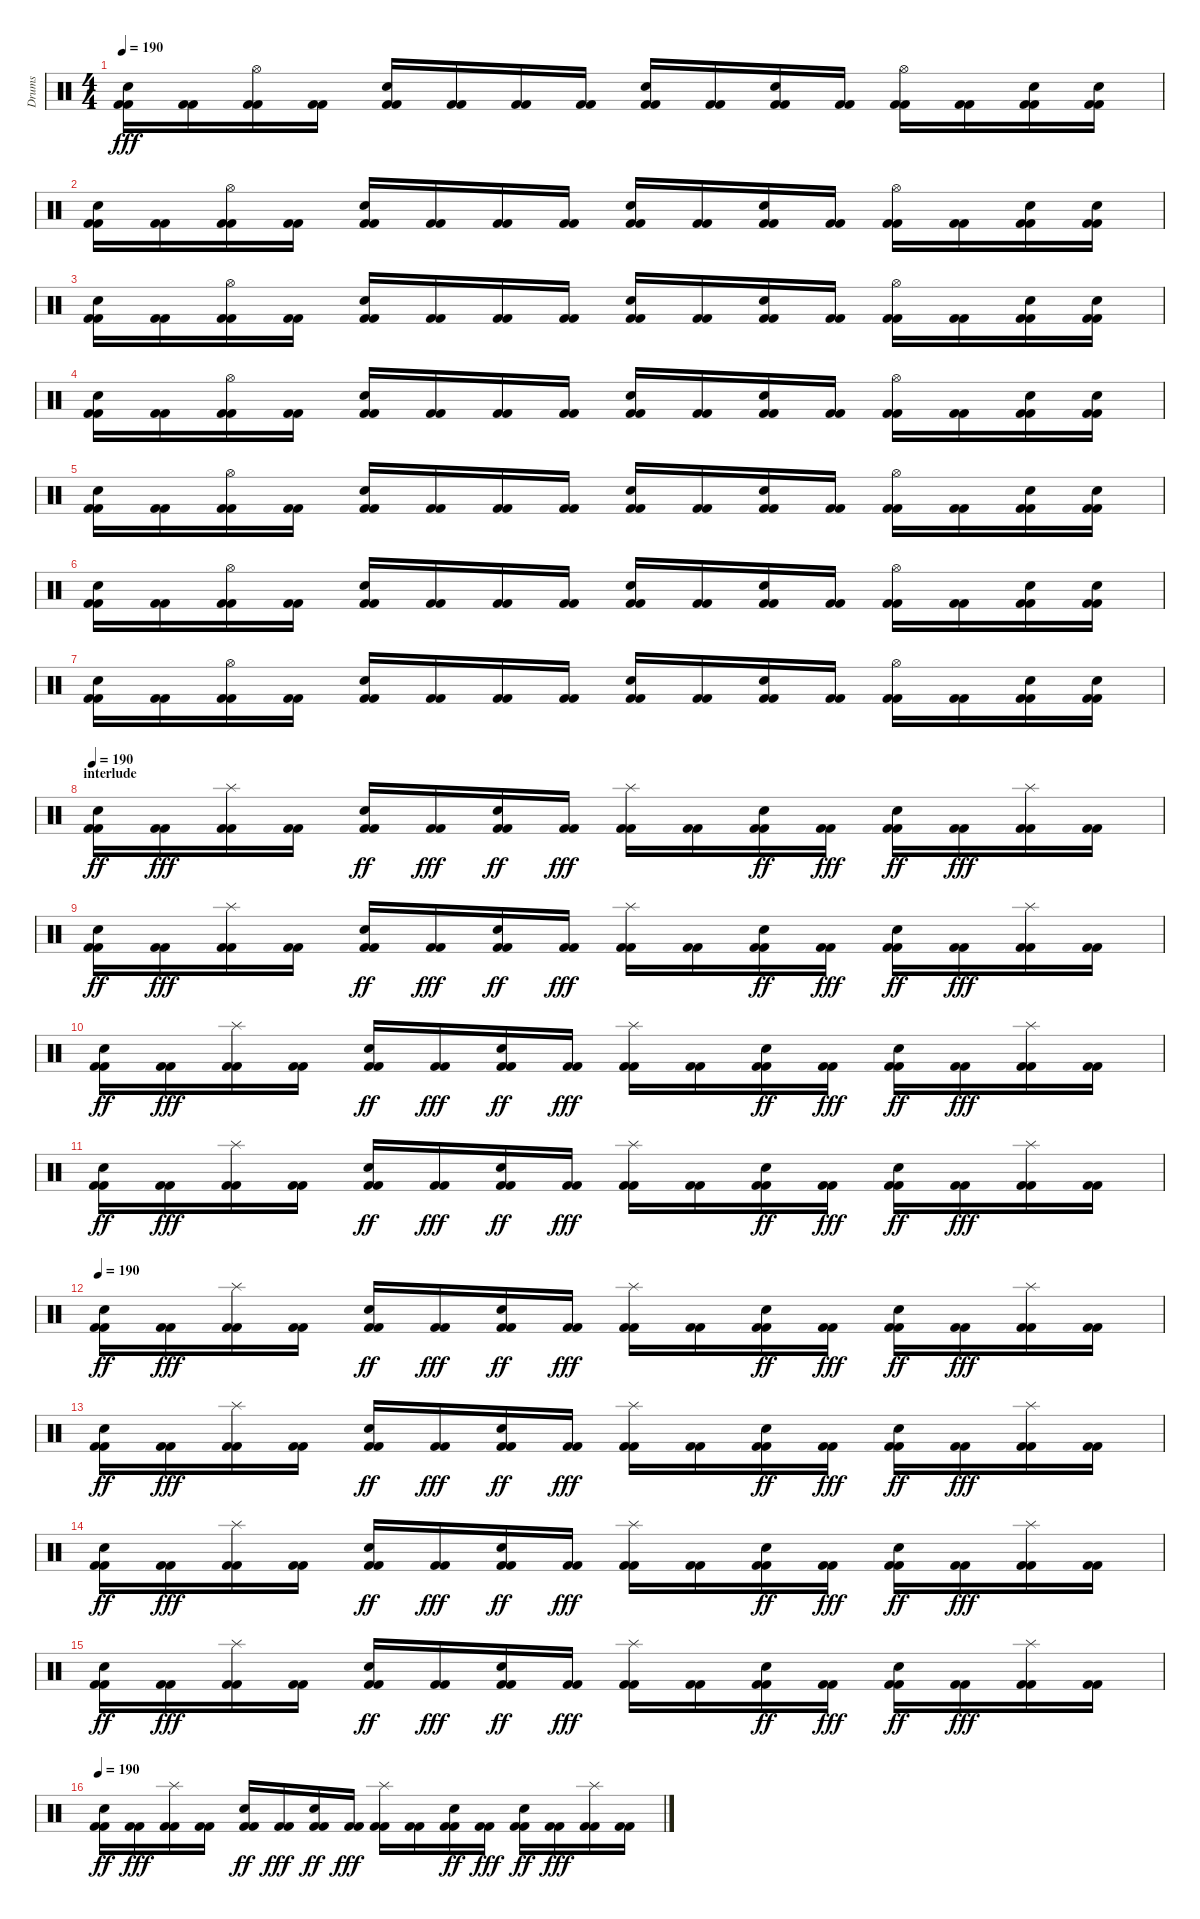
\track ("Drums" "Drums") {instrument percussion}
\staff {score}
\articulation defaults
\ts (4 4)
\tempo 190
\clef neutral
\ks c
("Electric Snare (hit)" "Kick (hit) 2" "Kick (hit) 2").16{dy fff} ("Kick (hit) 2" "Kick (hit) 2").16 ("Hi-Hat (open)" "Kick (hit) 2" "Kick (hit) 2").16 ("Kick (hit) 2" "Kick (hit) 2").16 ("Electric Snare (hit)" "Kick (hit) 2" "Kick (hit) 2").16 ("Kick (hit) 2" "Kick (hit) 2").16 ("Kick (hit) 2" "Kick (hit) 2").16 ("Kick (hit) 2" "Kick (hit) 2").16 ("Electric Snare (hit)" "Kick (hit) 2" "Kick (hit) 2").16 ("Kick (hit) 2" "Kick (hit) 2").16 ("Electric Snare (hit)" "Kick (hit) 2" "Kick (hit) 2").16 ("Kick (hit) 2" "Kick (hit) 2").16 ("Hi-Hat (open)" "Kick (hit) 2" "Kick (hit) 2").16 ("Kick (hit) 2" "Kick (hit) 2").16 ("Electric Snare (hit)" "Kick (hit) 2" "Kick (hit) 2").16 ("Electric Snare (hit)" "Kick (hit) 2" "Kick (hit) 2").16 |
("Electric Snare (hit)" "Kick (hit) 2" "Kick (hit) 2").16 ("Kick (hit) 2" "Kick (hit) 2").16 ("Hi-Hat (open)" "Kick (hit) 2" "Kick (hit) 2").16 ("Kick (hit) 2" "Kick (hit) 2").16 ("Electric Snare (hit)" "Kick (hit) 2" "Kick (hit) 2").16 ("Kick (hit) 2" "Kick (hit) 2").16 ("Kick (hit) 2" "Kick (hit) 2").16 ("Kick (hit) 2" "Kick (hit) 2").16 ("Electric Snare (hit)" "Kick (hit) 2" "Kick (hit) 2").16 ("Kick (hit) 2" "Kick (hit) 2").16 ("Electric Snare (hit)" "Kick (hit) 2" "Kick (hit) 2").16 ("Kick (hit) 2" "Kick (hit) 2").16 ("Hi-Hat (open)" "Kick (hit) 2" "Kick (hit) 2").16 ("Kick (hit) 2" "Kick (hit) 2").16 ("Electric Snare (hit)" "Kick (hit) 2" "Kick (hit) 2").16 ("Electric Snare (hit)" "Kick (hit) 2" "Kick (hit) 2").16 |
("Electric Snare (hit)" "Kick (hit) 2" "Kick (hit) 2").16 ("Kick (hit) 2" "Kick (hit) 2").16 ("Hi-Hat (open)" "Kick (hit) 2" "Kick (hit) 2").16 ("Kick (hit) 2" "Kick (hit) 2").16 ("Electric Snare (hit)" "Kick (hit) 2" "Kick (hit) 2").16 ("Kick (hit) 2" "Kick (hit) 2").16 ("Kick (hit) 2" "Kick (hit) 2").16 ("Kick (hit) 2" "Kick (hit) 2").16 ("Electric Snare (hit)" "Kick (hit) 2" "Kick (hit) 2").16 ("Kick (hit) 2" "Kick (hit) 2").16 ("Electric Snare (hit)" "Kick (hit) 2" "Kick (hit) 2").16 ("Kick (hit) 2" "Kick (hit) 2").16 ("Hi-Hat (open)" "Kick (hit) 2" "Kick (hit) 2").16 ("Kick (hit) 2" "Kick (hit) 2").16 ("Electric Snare (hit)" "Kick (hit) 2" "Kick (hit) 2").16 ("Electric Snare (hit)" "Kick (hit) 2" "Kick (hit) 2").16 |
("Electric Snare (hit)" "Kick (hit) 2" "Kick (hit) 2").16 ("Kick (hit) 2" "Kick (hit) 2").16 ("Hi-Hat (open)" "Kick (hit) 2" "Kick (hit) 2").16 ("Kick (hit) 2" "Kick (hit) 2").16 ("Electric Snare (hit)" "Kick (hit) 2" "Kick (hit) 2").16 ("Kick (hit) 2" "Kick (hit) 2").16 ("Kick (hit) 2" "Kick (hit) 2").16 ("Kick (hit) 2" "Kick (hit) 2").16 ("Electric Snare (hit)" "Kick (hit) 2" "Kick (hit) 2").16 ("Kick (hit) 2" "Kick (hit) 2").16 ("Electric Snare (hit)" "Kick (hit) 2" "Kick (hit) 2").16 ("Kick (hit) 2" "Kick (hit) 2").16 ("Hi-Hat (open)" "Kick (hit) 2" "Kick (hit) 2").16 ("Kick (hit) 2" "Kick (hit) 2").16 ("Electric Snare (hit)" "Kick (hit) 2" "Kick (hit) 2").16 ("Electric Snare (hit)" "Kick (hit) 2" "Kick (hit) 2").16 |
("Electric Snare (hit)" "Kick (hit) 2" "Kick (hit) 2").16 ("Kick (hit) 2" "Kick (hit) 2").16 ("Hi-Hat (open)" "Kick (hit) 2" "Kick (hit) 2").16 ("Kick (hit) 2" "Kick (hit) 2").16 ("Electric Snare (hit)" "Kick (hit) 2" "Kick (hit) 2").16 ("Kick (hit) 2" "Kick (hit) 2").16 ("Kick (hit) 2" "Kick (hit) 2").16 ("Kick (hit) 2" "Kick (hit) 2").16 ("Electric Snare (hit)" "Kick (hit) 2" "Kick (hit) 2").16 ("Kick (hit) 2" "Kick (hit) 2").16 ("Electric Snare (hit)" "Kick (hit) 2" "Kick (hit) 2").16 ("Kick (hit) 2" "Kick (hit) 2").16 ("Hi-Hat (open)" "Kick (hit) 2" "Kick (hit) 2").16 ("Kick (hit) 2" "Kick (hit) 2").16 ("Electric Snare (hit)" "Kick (hit) 2" "Kick (hit) 2").16 ("Electric Snare (hit)" "Kick (hit) 2" "Kick (hit) 2").16 |
("Electric Snare (hit)" "Kick (hit) 2" "Kick (hit) 2").16 ("Kick (hit) 2" "Kick (hit) 2").16 ("Hi-Hat (open)" "Kick (hit) 2" "Kick (hit) 2").16 ("Kick (hit) 2" "Kick (hit) 2").16 ("Electric Snare (hit)" "Kick (hit) 2" "Kick (hit) 2").16 ("Kick (hit) 2" "Kick (hit) 2").16 ("Kick (hit) 2" "Kick (hit) 2").16 ("Kick (hit) 2" "Kick (hit) 2").16 ("Electric Snare (hit)" "Kick (hit) 2" "Kick (hit) 2").16 ("Kick (hit) 2" "Kick (hit) 2").16 ("Electric Snare (hit)" "Kick (hit) 2" "Kick (hit) 2").16 ("Kick (hit) 2" "Kick (hit) 2").16 ("Hi-Hat (open)" "Kick (hit) 2" "Kick (hit) 2").16 ("Kick (hit) 2" "Kick (hit) 2").16 ("Electric Snare (hit)" "Kick (hit) 2" "Kick (hit) 2").16 ("Electric Snare (hit)" "Kick (hit) 2" "Kick (hit) 2").16 |
("Electric Snare (hit)" "Kick (hit) 2" "Kick (hit) 2").16 ("Kick (hit) 2" "Kick (hit) 2").16 ("Hi-Hat (open)" "Kick (hit) 2" "Kick (hit) 2").16 ("Kick (hit) 2" "Kick (hit) 2").16 ("Electric Snare (hit)" "Kick (hit) 2" "Kick (hit) 2").16 ("Kick (hit) 2" "Kick (hit) 2").16 ("Kick (hit) 2" "Kick (hit) 2").16 ("Kick (hit) 2" "Kick (hit) 2").16 ("Electric Snare (hit)" "Kick (hit) 2" "Kick (hit) 2").16 ("Kick (hit) 2" "Kick (hit) 2").16 ("Electric Snare (hit)" "Kick (hit) 2" "Kick (hit) 2").16 ("Kick (hit) 2" "Kick (hit) 2").16 ("Hi-Hat (open)" "Kick (hit) 2" "Kick (hit) 2").16 ("Kick (hit) 2" "Kick (hit) 2").16 ("Electric Snare (hit)" "Kick (hit) 2" "Kick (hit) 2").16 ("Electric Snare (hit)" "Kick (hit) 2" "Kick (hit) 2").16 |
\section ("" "interlude")
\tempo 190
("Kick (hit) 2" "Kick (hit) 2" "Electric Snare (hit)").16{dy ff} ("Kick (hit) 2" "Kick (hit) 2").16{dy fff} ("Kick (hit) 2" "Kick (hit) 2" "Splash (hit)").16 ("Kick (hit) 2" "Kick (hit) 2").16 ("Kick (hit) 2" "Kick (hit) 2" "Electric Snare (hit)").16{dy ff} ("Kick (hit) 2" "Kick (hit) 2").16{dy fff} ("Kick (hit) 2" "Kick (hit) 2" "Electric Snare (hit)").16{dy ff} ("Kick (hit) 2" "Kick (hit) 2").16{dy fff} ("Kick (hit) 2" "Kick (hit) 2" "Splash (hit)").16 ("Kick (hit) 2" "Kick (hit) 2").16 ("Kick (hit) 2" "Kick (hit) 2" "Electric Snare (hit)").16{dy ff} ("Kick (hit) 2" "Kick (hit) 2").16{dy fff} ("Kick (hit) 2" "Kick (hit) 2" "Electric Snare (hit)").16{dy ff} ("Kick (hit) 2" "Kick (hit) 2").16{dy fff} ("Kick (hit) 2" "Kick (hit) 2" "Splash (hit)").16 ("Kick (hit) 2" "Kick (hit) 2").16 |
("Kick (hit) 2" "Kick (hit) 2" "Electric Snare (hit)").16{dy ff} ("Kick (hit) 2" "Kick (hit) 2").16{dy fff} ("Kick (hit) 2" "Kick (hit) 2" "Splash (hit)").16 ("Kick (hit) 2" "Kick (hit) 2").16 ("Kick (hit) 2" "Kick (hit) 2" "Electric Snare (hit)").16{dy ff} ("Kick (hit) 2" "Kick (hit) 2").16{dy fff} ("Kick (hit) 2" "Kick (hit) 2" "Electric Snare (hit)").16{dy ff} ("Kick (hit) 2" "Kick (hit) 2").16{dy fff} ("Kick (hit) 2" "Kick (hit) 2" "Splash (hit)").16 ("Kick (hit) 2" "Kick (hit) 2").16 ("Kick (hit) 2" "Kick (hit) 2" "Electric Snare (hit)").16{dy ff} ("Kick (hit) 2" "Kick (hit) 2").16{dy fff} ("Kick (hit) 2" "Kick (hit) 2" "Electric Snare (hit)").16{dy ff} ("Kick (hit) 2" "Kick (hit) 2").16{dy fff} ("Kick (hit) 2" "Kick (hit) 2" "Splash (hit)").16 ("Kick (hit) 2" "Kick (hit) 2").16 |
("Kick (hit) 2" "Kick (hit) 2" "Electric Snare (hit)").16{dy ff} ("Kick (hit) 2" "Kick (hit) 2").16{dy fff} ("Kick (hit) 2" "Kick (hit) 2" "Splash (hit)").16 ("Kick (hit) 2" "Kick (hit) 2").16 ("Kick (hit) 2" "Kick (hit) 2" "Electric Snare (hit)").16{dy ff} ("Kick (hit) 2" "Kick (hit) 2").16{dy fff} ("Kick (hit) 2" "Kick (hit) 2" "Electric Snare (hit)").16{dy ff} ("Kick (hit) 2" "Kick (hit) 2").16{dy fff} ("Kick (hit) 2" "Kick (hit) 2" "Splash (hit)").16 ("Kick (hit) 2" "Kick (hit) 2").16 ("Kick (hit) 2" "Kick (hit) 2" "Electric Snare (hit)").16{dy ff} ("Kick (hit) 2" "Kick (hit) 2").16{dy fff} ("Kick (hit) 2" "Kick (hit) 2" "Electric Snare (hit)").16{dy ff} ("Kick (hit) 2" "Kick (hit) 2").16{dy fff} ("Kick (hit) 2" "Kick (hit) 2" "Splash (hit)").16 ("Kick (hit) 2" "Kick (hit) 2").16 |
("Kick (hit) 2" "Kick (hit) 2" "Electric Snare (hit)").16{dy ff} ("Kick (hit) 2" "Kick (hit) 2").16{dy fff} ("Kick (hit) 2" "Kick (hit) 2" "Splash (hit)").16 ("Kick (hit) 2" "Kick (hit) 2").16 ("Kick (hit) 2" "Kick (hit) 2" "Electric Snare (hit)").16{dy ff} ("Kick (hit) 2" "Kick (hit) 2").16{dy fff} ("Kick (hit) 2" "Kick (hit) 2" "Electric Snare (hit)").16{dy ff} ("Kick (hit) 2" "Kick (hit) 2").16{dy fff} ("Kick (hit) 2" "Kick (hit) 2" "Splash (hit)").16 ("Kick (hit) 2" "Kick (hit) 2").16 ("Kick (hit) 2" "Kick (hit) 2" "Electric Snare (hit)").16{dy ff} ("Kick (hit) 2" "Kick (hit) 2").16{dy fff} ("Kick (hit) 2" "Kick (hit) 2" "Electric Snare (hit)").16{dy ff} ("Kick (hit) 2" "Kick (hit) 2").16{dy fff} ("Kick (hit) 2" "Kick (hit) 2" "Splash (hit)").16 ("Kick (hit) 2" "Kick (hit) 2").16 |
\tempo 190
("Kick (hit) 2" "Kick (hit) 2" "Electric Snare (hit)").16{dy ff} ("Kick (hit) 2" "Kick (hit) 2").16{dy fff} ("Kick (hit) 2" "Kick (hit) 2" "Splash (hit)").16 ("Kick (hit) 2" "Kick (hit) 2").16 ("Kick (hit) 2" "Kick (hit) 2" "Electric Snare (hit)").16{dy ff} ("Kick (hit) 2" "Kick (hit) 2").16{dy fff} ("Kick (hit) 2" "Kick (hit) 2" "Electric Snare (hit)").16{dy ff} ("Kick (hit) 2" "Kick (hit) 2").16{dy fff} ("Kick (hit) 2" "Kick (hit) 2" "Splash (hit)").16 ("Kick (hit) 2" "Kick (hit) 2").16 ("Kick (hit) 2" "Kick (hit) 2" "Electric Snare (hit)").16{dy ff} ("Kick (hit) 2" "Kick (hit) 2").16{dy fff} ("Kick (hit) 2" "Kick (hit) 2" "Electric Snare (hit)").16{dy ff} ("Kick (hit) 2" "Kick (hit) 2").16{dy fff} ("Kick (hit) 2" "Kick (hit) 2" "Splash (hit)").16 ("Kick (hit) 2" "Kick (hit) 2").16 |
("Kick (hit) 2" "Kick (hit) 2" "Electric Snare (hit)").16{dy ff} ("Kick (hit) 2" "Kick (hit) 2").16{dy fff} ("Kick (hit) 2" "Kick (hit) 2" "Splash (hit)").16 ("Kick (hit) 2" "Kick (hit) 2").16 ("Kick (hit) 2" "Kick (hit) 2" "Electric Snare (hit)").16{dy ff} ("Kick (hit) 2" "Kick (hit) 2").16{dy fff} ("Kick (hit) 2" "Kick (hit) 2" "Electric Snare (hit)").16{dy ff} ("Kick (hit) 2" "Kick (hit) 2").16{dy fff} ("Kick (hit) 2" "Kick (hit) 2" "Splash (hit)").16 ("Kick (hit) 2" "Kick (hit) 2").16 ("Kick (hit) 2" "Kick (hit) 2" "Electric Snare (hit)").16{dy ff} ("Kick (hit) 2" "Kick (hit) 2").16{dy fff} ("Kick (hit) 2" "Kick (hit) 2" "Electric Snare (hit)").16{dy ff} ("Kick (hit) 2" "Kick (hit) 2").16{dy fff} ("Kick (hit) 2" "Kick (hit) 2" "Splash (hit)").16 ("Kick (hit) 2" "Kick (hit) 2").16 |
("Kick (hit) 2" "Kick (hit) 2" "Electric Snare (hit)").16{dy ff} ("Kick (hit) 2" "Kick (hit) 2").16{dy fff} ("Kick (hit) 2" "Kick (hit) 2" "Splash (hit)").16 ("Kick (hit) 2" "Kick (hit) 2").16 ("Kick (hit) 2" "Kick (hit) 2" "Electric Snare (hit)").16{dy ff} ("Kick (hit) 2" "Kick (hit) 2").16{dy fff} ("Kick (hit) 2" "Kick (hit) 2" "Electric Snare (hit)").16{dy ff} ("Kick (hit) 2" "Kick (hit) 2").16{dy fff} ("Kick (hit) 2" "Kick (hit) 2" "Splash (hit)").16 ("Kick (hit) 2" "Kick (hit) 2").16 ("Kick (hit) 2" "Kick (hit) 2" "Electric Snare (hit)").16{dy ff} ("Kick (hit) 2" "Kick (hit) 2").16{dy fff} ("Kick (hit) 2" "Kick (hit) 2" "Electric Snare (hit)").16{dy ff} ("Kick (hit) 2" "Kick (hit) 2").16{dy fff} ("Kick (hit) 2" "Kick (hit) 2" "Splash (hit)").16 ("Kick (hit) 2" "Kick (hit) 2").16 |
("Kick (hit) 2" "Kick (hit) 2" "Electric Snare (hit)").16{dy ff} ("Kick (hit) 2" "Kick (hit) 2").16{dy fff} ("Kick (hit) 2" "Kick (hit) 2" "Splash (hit)").16 ("Kick (hit) 2" "Kick (hit) 2").16 ("Kick (hit) 2" "Kick (hit) 2" "Electric Snare (hit)").16{dy ff} ("Kick (hit) 2" "Kick (hit) 2").16{dy fff} ("Kick (hit) 2" "Kick (hit) 2" "Electric Snare (hit)").16{dy ff} ("Kick (hit) 2" "Kick (hit) 2").16{dy fff} ("Kick (hit) 2" "Kick (hit) 2" "Splash (hit)").16 ("Kick (hit) 2" "Kick (hit) 2").16 ("Kick (hit) 2" "Kick (hit) 2" "Electric Snare (hit)").16{dy ff} ("Kick (hit) 2" "Kick (hit) 2").16{dy fff} ("Kick (hit) 2" "Kick (hit) 2" "Electric Snare (hit)").16{dy ff} ("Kick (hit) 2" "Kick (hit) 2").16{dy fff} ("Kick (hit) 2" "Kick (hit) 2" "Splash (hit)").16 ("Kick (hit) 2" "Kick (hit) 2").16 |
\tempo 190
("Kick (hit) 2" "Kick (hit) 2" "Electric Snare (hit)").16{dy ff} ("Kick (hit) 2" "Kick (hit) 2").16{dy fff} ("Kick (hit) 2" "Kick (hit) 2" "Splash (hit)").16 ("Kick (hit) 2" "Kick (hit) 2").16 ("Kick (hit) 2" "Kick (hit) 2" "Electric Snare (hit)").16{dy ff} ("Kick (hit) 2" "Kick (hit) 2").16{dy fff} ("Kick (hit) 2" "Kick (hit) 2" "Electric Snare (hit)").16{dy ff} ("Kick (hit) 2" "Kick (hit) 2").16{dy fff} ("Kick (hit) 2" "Kick (hit) 2" "Splash (hit)").16 ("Kick (hit) 2" "Kick (hit) 2").16 ("Kick (hit) 2" "Kick (hit) 2" "Electric Snare (hit)").16{dy ff} ("Kick (hit) 2" "Kick (hit) 2").16{dy fff} ("Kick (hit) 2" "Kick (hit) 2" "Electric Snare (hit)").16{dy ff} ("Kick (hit) 2" "Kick (hit) 2").16{dy fff} ("Kick (hit) 2" "Kick (hit) 2" "Splash (hit)").16 ("Kick (hit) 2" "Kick (hit) 2").16
